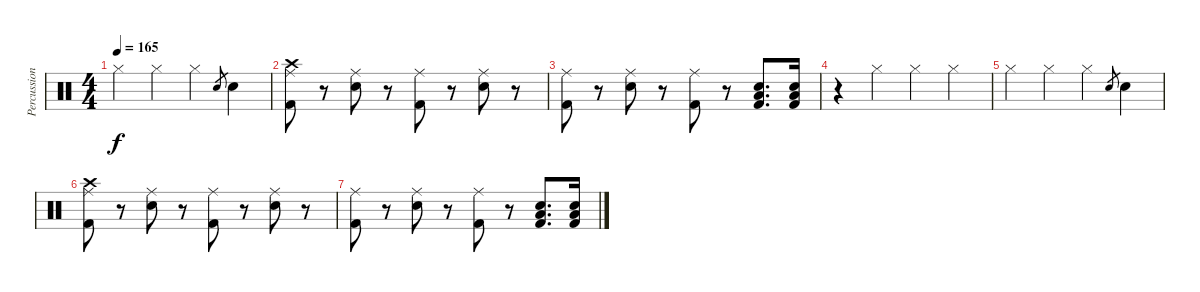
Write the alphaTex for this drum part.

\track ("Percussions" "Percussion") {instrument percussion}
\staff {score}
\articulation defaults
\ts (4 4)
\tempo 165
\clef neutral
\ks c "Hi-Hat (closed)".4{dy f} "Hi-Hat (closed)".4 "Hi-Hat (closed)".4 "Snare (hit) 2".8{gr} "Snare (hit) 2".4
|
("Kick (hit) 2" "Crash high (hit)" "Ride (middle)").8 r.8 ("Electric Snare (hit)" "Ride (middle)").8 r.8 ("Kick (hit) 2" "Ride (middle)").8 r.8 ("Electric Snare (hit)" "Ride (middle)").8 r.8 |
("Kick (hit) 2" "Ride (middle)").8 r.8 ("Electric Snare (hit)" "Ride (middle)").8 r.8 ("Kick (hit) 2" "Ride (middle)").8 r.8 ("Electric Snare (hit)" "Low Tom (hit)" "Kick (hit) 2").8{d} ("Electric Snare (hit)" "Low Tom (hit)" "Kick (hit) 2").16 |
r.4 "Hi-Hat (closed)".4 "Hi-Hat (closed)".4 "Hi-Hat (closed)".4 |
"Hi-Hat (closed)".4 "Hi-Hat (closed)".4 "Hi-Hat (closed)".4 "Snare (hit) 2".8{gr} "Snare (hit) 2".4 |
("Kick (hit) 2" "Crash high (hit)" "Ride (middle)").8 r.8 ("Electric Snare (hit)" "Ride (middle)").8 r.8 ("Kick (hit) 2" "Ride (middle)").8 r.8 ("Electric Snare (hit)" "Ride (middle)").8 r.8 |
("Kick (hit) 2" "Ride (middle)").8 r.8 ("Electric Snare (hit)" "Ride (middle)").8 r.8 ("Kick (hit) 2" "Ride (middle)").8 r.8 ("Electric Snare (hit)" "Low Tom (hit)" "Kick (hit) 2").8{d} ("Electric Snare (hit)" "Low Tom (hit)" "Kick (hit) 2").16
